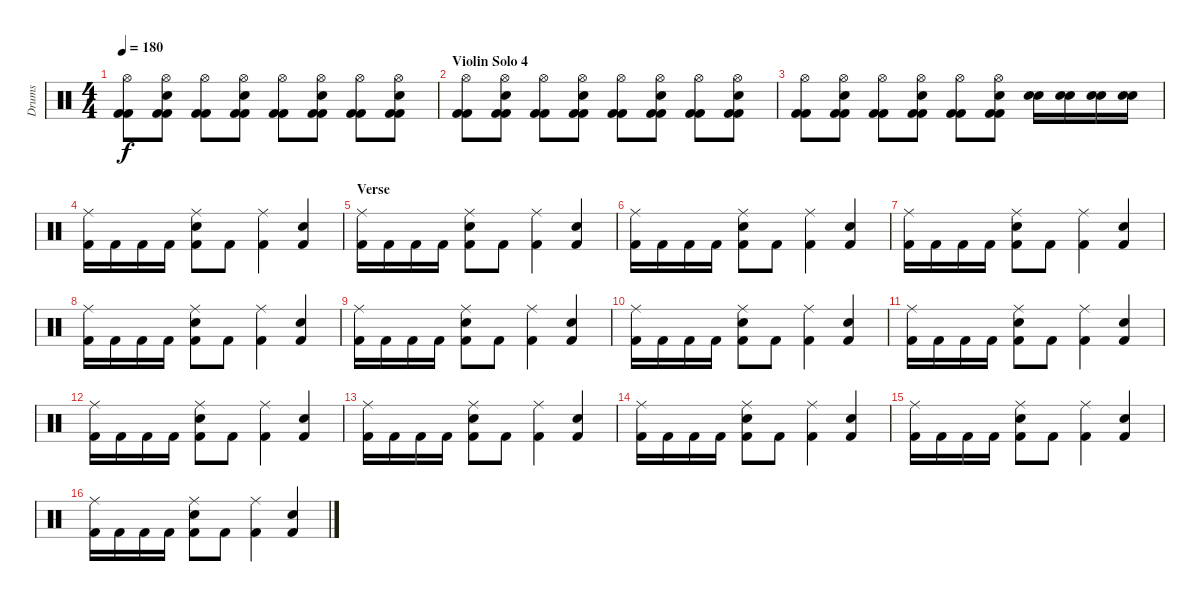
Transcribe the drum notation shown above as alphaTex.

\track ("Drums" "Drums") {instrument percussion}
\staff {score}
\articulation defaults
\ts (4 4)
\tempo 180
\clef neutral
\ks c
("Hi-Hat (open)" "Kick (hit) 2" "Kick (hit) 2").8{dy f} ("Hi-Hat (open)" "Snare (hit) 2" "Kick (hit) 2" "Kick (hit) 2").8 ("Hi-Hat (open)" "Kick (hit) 2" "Kick (hit) 2").8 ("Hi-Hat (open)" "Snare (hit) 2" "Kick (hit) 2" "Kick (hit) 2").8 ("Hi-Hat (open)" "Kick (hit) 2" "Kick (hit) 2").8 ("Hi-Hat (open)" "Snare (hit) 2" "Kick (hit) 2" "Kick (hit) 2").8 ("Hi-Hat (open)" "Kick (hit) 2" "Kick (hit) 2").8 ("Hi-Hat (open)" "Snare (hit) 2" "Kick (hit) 2" "Kick (hit) 2").8 |
\section ("" "Violin Solo 4")
("Hi-Hat (open)" "Kick (hit) 2" "Kick (hit) 2").8 ("Hi-Hat (open)" "Snare (hit) 2" "Kick (hit) 2" "Kick (hit) 2").8 ("Hi-Hat (open)" "Kick (hit) 2" "Kick (hit) 2").8 ("Hi-Hat (open)" "Snare (hit) 2" "Kick (hit) 2" "Kick (hit) 2").8 ("Hi-Hat (open)" "Kick (hit) 2" "Kick (hit) 2").8 ("Hi-Hat (open)" "Snare (hit) 2" "Kick (hit) 2" "Kick (hit) 2").8 ("Hi-Hat (open)" "Kick (hit) 2" "Kick (hit) 2").8 ("Hi-Hat (open)" "Snare (hit) 2" "Kick (hit) 2" "Kick (hit) 2").8 |
("Hi-Hat (open)" "Kick (hit) 2" "Kick (hit) 2").8 ("Hi-Hat (open)" "Snare (hit) 2" "Kick (hit) 2" "Kick (hit) 2").8 ("Hi-Hat (open)" "Kick (hit) 2" "Kick (hit) 2").8 ("Hi-Hat (open)" "Snare (hit) 2" "Kick (hit) 2" "Kick (hit) 2").8 ("Hi-Hat (open)" "Kick (hit) 2" "Kick (hit) 2").8 ("Hi-Hat (open)" "Snare (hit) 2" "Kick (hit) 2" "Kick (hit) 2").8 ("Snare (hit) 2" "Snare (hit) 2").16 ("Snare (hit) 2" "Snare (hit) 2").16 ("Snare (hit) 2" "Snare (hit) 2").16 ("Snare (hit) 2" "Snare (hit) 2").16 |
("Ride (middle)" "Kick (hit) 2").16 "Kick (hit) 2".16 "Kick (hit) 2".16 "Kick (hit) 2".16 ("Ride (middle)" "Snare (hit) 2" "Kick (hit) 2").8 "Kick (hit) 2".8 ("Ride (middle)" "Kick (hit) 2").4 ("Snare (hit) 2" "Kick (hit) 2").4 |
\section ("" "Verse")
("Ride (middle)" "Kick (hit) 2").16 "Kick (hit) 2".16 "Kick (hit) 2".16 "Kick (hit) 2".16 ("Ride (middle)" "Snare (hit) 2" "Kick (hit) 2").8 "Kick (hit) 2".8 ("Ride (middle)" "Kick (hit) 2").4 ("Snare (hit) 2" "Kick (hit) 2").4 |
("Ride (middle)" "Kick (hit) 2").16 "Kick (hit) 2".16 "Kick (hit) 2".16 "Kick (hit) 2".16 ("Ride (middle)" "Snare (hit) 2" "Kick (hit) 2").8 "Kick (hit) 2".8 ("Ride (middle)" "Kick (hit) 2").4 ("Snare (hit) 2" "Kick (hit) 2").4 |
("Ride (middle)" "Kick (hit) 2").16 "Kick (hit) 2".16 "Kick (hit) 2".16 "Kick (hit) 2".16 ("Ride (middle)" "Snare (hit) 2" "Kick (hit) 2").8 "Kick (hit) 2".8 ("Ride (middle)" "Kick (hit) 2").4 ("Snare (hit) 2" "Kick (hit) 2").4 |
("Ride (middle)" "Kick (hit) 2").16 "Kick (hit) 2".16 "Kick (hit) 2".16 "Kick (hit) 2".16 ("Ride (middle)" "Snare (hit) 2" "Kick (hit) 2").8 "Kick (hit) 2".8 ("Ride (middle)" "Kick (hit) 2").4 ("Snare (hit) 2" "Kick (hit) 2").4 |
("Ride (middle)" "Kick (hit) 2").16 "Kick (hit) 2".16 "Kick (hit) 2".16 "Kick (hit) 2".16 ("Ride (middle)" "Snare (hit) 2" "Kick (hit) 2").8 "Kick (hit) 2".8 ("Ride (middle)" "Kick (hit) 2").4 ("Snare (hit) 2" "Kick (hit) 2").4 |
("Ride (middle)" "Kick (hit) 2").16 "Kick (hit) 2".16 "Kick (hit) 2".16 "Kick (hit) 2".16 ("Ride (middle)" "Snare (hit) 2" "Kick (hit) 2").8 "Kick (hit) 2".8 ("Ride (middle)" "Kick (hit) 2").4 ("Snare (hit) 2" "Kick (hit) 2").4 |
("Ride (middle)" "Kick (hit) 2").16 "Kick (hit) 2".16 "Kick (hit) 2".16 "Kick (hit) 2".16 ("Ride (middle)" "Snare (hit) 2" "Kick (hit) 2").8 "Kick (hit) 2".8 ("Ride (middle)" "Kick (hit) 2").4 ("Snare (hit) 2" "Kick (hit) 2").4 |
("Ride (middle)" "Kick (hit) 2").16 "Kick (hit) 2".16 "Kick (hit) 2".16 "Kick (hit) 2".16 ("Ride (middle)" "Snare (hit) 2" "Kick (hit) 2").8 "Kick (hit) 2".8 ("Ride (middle)" "Kick (hit) 2").4 ("Snare (hit) 2" "Kick (hit) 2").4 |
("Ride (middle)" "Kick (hit) 2").16 "Kick (hit) 2".16 "Kick (hit) 2".16 "Kick (hit) 2".16 ("Ride (middle)" "Snare (hit) 2" "Kick (hit) 2").8 "Kick (hit) 2".8 ("Ride (middle)" "Kick (hit) 2").4 ("Snare (hit) 2" "Kick (hit) 2").4 |
("Ride (middle)" "Kick (hit) 2").16 "Kick (hit) 2".16 "Kick (hit) 2".16 "Kick (hit) 2".16 ("Ride (middle)" "Snare (hit) 2" "Kick (hit) 2").8 "Kick (hit) 2".8 ("Ride (middle)" "Kick (hit) 2").4 ("Snare (hit) 2" "Kick (hit) 2").4 |
("Ride (middle)" "Kick (hit) 2").16 "Kick (hit) 2".16 "Kick (hit) 2".16 "Kick (hit) 2".16 ("Ride (middle)" "Snare (hit) 2" "Kick (hit) 2").8 "Kick (hit) 2".8 ("Ride (middle)" "Kick (hit) 2").4 ("Snare (hit) 2" "Kick (hit) 2").4 |
("Ride (middle)" "Kick (hit) 2").16 "Kick (hit) 2".16 "Kick (hit) 2".16 "Kick (hit) 2".16 ("Ride (middle)" "Snare (hit) 2" "Kick (hit) 2").8 "Kick (hit) 2".8 ("Ride (middle)" "Kick (hit) 2").4 ("Snare (hit) 2" "Kick (hit) 2").4
